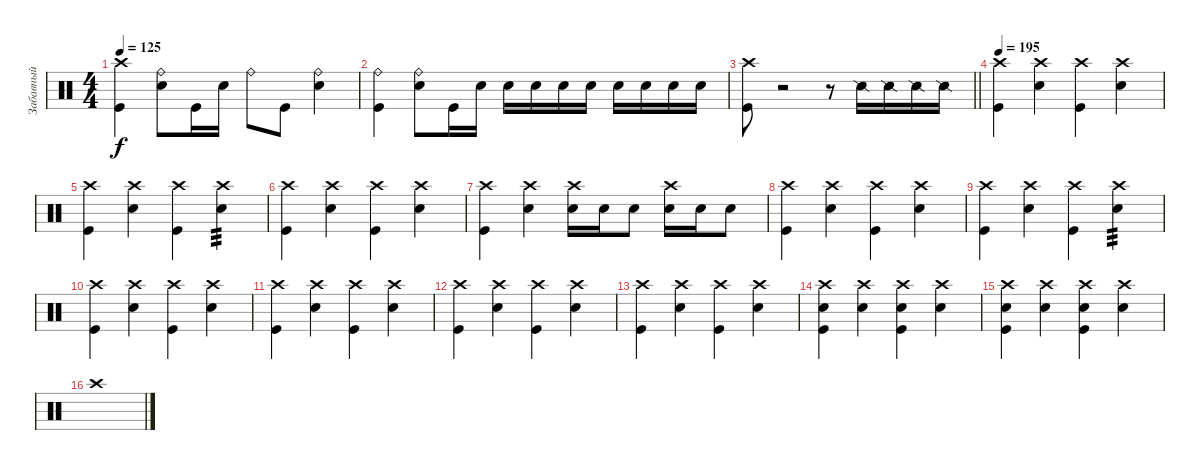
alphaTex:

\track ("Забавный" "Забавный") {instrument percussion}
\staff {score}
\articulation defaults
\ts (4 4)
\tempo 125
\clef neutral
\ks c
("Crash high (hit)" "Kick (hit)").4{dy f} ("Ride (bell)" "Electric Snare (hit)").8 "Kick (hit)".16 "Electric Snare (hit)".16 "Ride (bell)".8 "Kick (hit)".8 ("Ride (bell)" "Electric Snare (hit)").4 |
("Ride (bell)" "Kick (hit)").4 ("Ride (bell)" "Electric Snare (hit)").8 "Kick (hit)".16 "Electric Snare (hit)".16 "Electric Snare (hit)".16 "Electric Snare (hit)".16 "Electric Snare (hit)".16 "Electric Snare (hit)".16 "Electric Snare (hit)".16 "Electric Snare (hit)".16 "Electric Snare (hit)".16 "Electric Snare (hit)".16 |
\barLineRight lightlight
("Crash high (hit)" "Kick (hit)").8 r.2 r.8 "Snare (side stick) 2".16 "Snare (side stick) 2".16 "Snare (side stick) 2".16 "Snare (side stick) 2".16 |
\tempo 195
("Crash high (hit)" "Kick (hit)").4 ("Crash high (hit)" "Snare (hit) 2").4 ("Crash high (hit)" "Kick (hit)").4 ("Crash high (hit)" "Snare (hit) 2").4 |
("Crash high (hit)" "Kick (hit)").4 ("Crash high (hit)" "Snare (hit) 2").4 ("Crash high (hit)" "Kick (hit)").4 ("Crash high (hit)" "Snare (hit) 2").4{tp 3} |
("Crash high (hit)" "Kick (hit)").4 ("Crash high (hit)" "Snare (hit) 2").4 ("Crash high (hit)" "Kick (hit)").4 ("Crash high (hit)" "Snare (hit) 2").4 |
("Crash high (hit)" "Kick (hit)").4 ("Crash high (hit)" "Snare (hit) 2").4 ("Crash high (hit)" "Snare (hit) 2").16 "Snare (hit) 2".16 "Snare (hit) 2".8 ("Crash high (hit)" "Snare (hit) 2").16 "Snare (hit) 2".16 "Snare (hit) 2".8 |
("Crash high (hit)" "Kick (hit)").4 ("Crash high (hit)" "Snare (hit) 2").4 ("Crash high (hit)" "Kick (hit)").4 ("Crash high (hit)" "Snare (hit) 2").4 |
("Crash high (hit)" "Kick (hit)").4 ("Crash high (hit)" "Snare (hit) 2").4 ("Crash high (hit)" "Kick (hit)").4 ("Crash high (hit)" "Snare (hit) 2").4{tp 3} |
("Crash high (hit)" "Kick (hit)").4 ("Crash high (hit)" "Snare (hit) 2").4 ("Crash high (hit)" "Kick (hit)").4 ("Crash high (hit)" "Snare (hit) 2").4 |
("Crash high (hit)" "Kick (hit)").4 ("Crash high (hit)" "Snare (hit) 2").4 ("Crash high (hit)" "Kick (hit)").4 ("Crash high (hit)" "Snare (hit) 2").4 |
("Crash high (hit)" "Kick (hit)").4 ("Crash high (hit)" "Snare (hit) 2").4 ("Crash high (hit)" "Kick (hit)").4 ("Crash high (hit)" "Snare (hit) 2").4 |
("Crash high (hit)" "Kick (hit)").4 ("Crash high (hit)" "Snare (hit) 2").4 ("Crash high (hit)" "Kick (hit)").4 ("Crash high (hit)" "Snare (hit) 2").4 |
("Crash high (hit)" "Snare (hit) 2" "Kick (hit)").4 ("Crash high (hit)" "Snare (hit) 2").4 ("Crash high (hit)" "Snare (hit) 2" "Kick (hit)").4 ("Crash high (hit)" "Snare (hit) 2").4 |
("Crash high (hit)" "Snare (hit) 2" "Kick (hit)").4 ("Crash high (hit)" "Snare (hit) 2").4 ("Crash high (hit)" "Snare (hit) 2" "Kick (hit)").4 ("Crash high (hit)" "Snare (hit) 2").4 |
"Crash high (hit)".1
